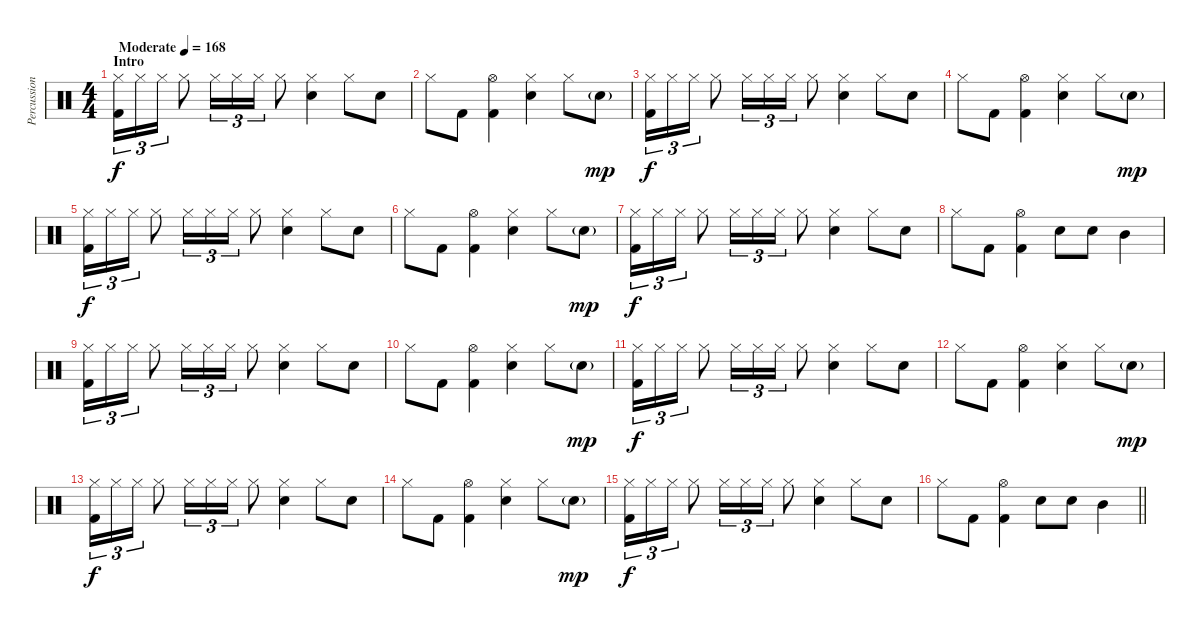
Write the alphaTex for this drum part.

\track ("Percussion" "Percussion") {instrument percussion}
\staff {score}
\articulation defaults
\ts (4 4)
\section ("" "Intro")
\tempo (168 "Moderate")
\clef neutral
\ks c
("Hi-Hat (closed)" "Kick (hit) 2").16{tu (3 2) dy f} "Hi-Hat (closed)".16{tu (3 2)} "Hi-Hat (closed)".16{tu (3 2)} "Hi-Hat (closed)".8 "Hi-Hat (closed)".16{tu (3 2)} "Hi-Hat (closed)".16{tu (3 2)} "Hi-Hat (closed)".16{tu (3 2)} "Hi-Hat (closed)".8 ("Hi-Hat (closed)" "Electric Snare (hit)").4 "Hi-Hat (closed)".8 "Electric Snare (hit)".8 |
"Hi-Hat (closed)".8 "Kick (hit) 2".8 ("Hi-Hat (open)" "Kick (hit) 2").4 ("Hi-Hat (closed)" "Electric Snare (hit)").4 "Hi-Hat (closed)".8 "Electric Snare (hit)"{g}.8{dy mp} |
("Hi-Hat (closed)" "Kick (hit) 2").16{tu (3 2) dy f} "Hi-Hat (closed)".16{tu (3 2)} "Hi-Hat (closed)".16{tu (3 2)} "Hi-Hat (closed)".8 "Hi-Hat (closed)".16{tu (3 2)} "Hi-Hat (closed)".16{tu (3 2)} "Hi-Hat (closed)".16{tu (3 2)} "Hi-Hat (closed)".8 ("Hi-Hat (closed)" "Electric Snare (hit)").4 "Hi-Hat (closed)".8 "Electric Snare (hit)".8 |
"Hi-Hat (closed)".8 "Kick (hit) 2".8 ("Hi-Hat (open)" "Kick (hit) 2").4 ("Hi-Hat (closed)" "Electric Snare (hit)").4 "Hi-Hat (closed)".8 "Electric Snare (hit)"{g}.8{dy mp} |
("Hi-Hat (closed)" "Kick (hit) 2").16{tu (3 2) dy f} "Hi-Hat (closed)".16{tu (3 2)} "Hi-Hat (closed)".16{tu (3 2)} "Hi-Hat (closed)".8 "Hi-Hat (closed)".16{tu (3 2)} "Hi-Hat (closed)".16{tu (3 2)} "Hi-Hat (closed)".16{tu (3 2)} "Hi-Hat (closed)".8 ("Hi-Hat (closed)" "Electric Snare (hit)").4 "Hi-Hat (closed)".8 "Electric Snare (hit)".8 |
"Hi-Hat (closed)".8 "Kick (hit) 2".8 ("Hi-Hat (open)" "Kick (hit) 2").4 ("Hi-Hat (closed)" "Electric Snare (hit)").4 "Hi-Hat (closed)".8 "Electric Snare (hit)"{g}.8{dy mp} |
("Hi-Hat (closed)" "Kick (hit) 2").16{tu (3 2) dy f} "Hi-Hat (closed)".16{tu (3 2)} "Hi-Hat (closed)".16{tu (3 2)} "Hi-Hat (closed)".8 "Hi-Hat (closed)".16{tu (3 2)} "Hi-Hat (closed)".16{tu (3 2)} "Hi-Hat (closed)".16{tu (3 2)} "Hi-Hat (closed)".8 ("Hi-Hat (closed)" "Electric Snare (hit)").4 "Hi-Hat (closed)".8 "Electric Snare (hit)".8 |
"Hi-Hat (closed)".8 "Kick (hit) 2".8 ("Hi-Hat (open)" "Kick (hit) 2").4 "Electric Snare (hit)".8 "Electric Snare (hit)".8 "Mid Tom (hit)".4 |
("Hi-Hat (closed)" "Kick (hit) 2").16{tu (3 2)} "Hi-Hat (closed)".16{tu (3 2)} "Hi-Hat (closed)".16{tu (3 2)} "Hi-Hat (closed)".8 "Hi-Hat (closed)".16{tu (3 2)} "Hi-Hat (closed)".16{tu (3 2)} "Hi-Hat (closed)".16{tu (3 2)} "Hi-Hat (closed)".8 ("Hi-Hat (closed)" "Electric Snare (hit)").4 "Hi-Hat (closed)".8 "Electric Snare (hit)".8 |
"Hi-Hat (closed)".8 "Kick (hit) 2".8 ("Hi-Hat (open)" "Kick (hit) 2").4 ("Hi-Hat (closed)" "Electric Snare (hit)").4 "Hi-Hat (closed)".8 "Electric Snare (hit)"{g}.8{dy mp} |
("Hi-Hat (closed)" "Kick (hit) 2").16{tu (3 2) dy f} "Hi-Hat (closed)".16{tu (3 2)} "Hi-Hat (closed)".16{tu (3 2)} "Hi-Hat (closed)".8 "Hi-Hat (closed)".16{tu (3 2)} "Hi-Hat (closed)".16{tu (3 2)} "Hi-Hat (closed)".16{tu (3 2)} "Hi-Hat (closed)".8 ("Hi-Hat (closed)" "Electric Snare (hit)").4 "Hi-Hat (closed)".8 "Electric Snare (hit)".8 |
"Hi-Hat (closed)".8 "Kick (hit) 2".8 ("Hi-Hat (open)" "Kick (hit) 2").4 ("Hi-Hat (closed)" "Electric Snare (hit)").4 "Hi-Hat (closed)".8 "Electric Snare (hit)"{g}.8{dy mp} |
("Hi-Hat (closed)" "Kick (hit) 2").16{tu (3 2) dy f} "Hi-Hat (closed)".16{tu (3 2)} "Hi-Hat (closed)".16{tu (3 2)} "Hi-Hat (closed)".8 "Hi-Hat (closed)".16{tu (3 2)} "Hi-Hat (closed)".16{tu (3 2)} "Hi-Hat (closed)".16{tu (3 2)} "Hi-Hat (closed)".8 ("Hi-Hat (closed)" "Electric Snare (hit)").4 "Hi-Hat (closed)".8 "Electric Snare (hit)".8 |
"Hi-Hat (closed)".8 "Kick (hit) 2".8 ("Hi-Hat (open)" "Kick (hit) 2").4 ("Hi-Hat (closed)" "Electric Snare (hit)").4 "Hi-Hat (closed)".8 "Electric Snare (hit)"{g}.8{dy mp} |
("Hi-Hat (closed)" "Kick (hit) 2").16{tu (3 2) dy f} "Hi-Hat (closed)".16{tu (3 2)} "Hi-Hat (closed)".16{tu (3 2)} "Hi-Hat (closed)".8 "Hi-Hat (closed)".16{tu (3 2)} "Hi-Hat (closed)".16{tu (3 2)} "Hi-Hat (closed)".16{tu (3 2)} "Hi-Hat (closed)".8 ("Hi-Hat (closed)" "Electric Snare (hit)").4 "Hi-Hat (closed)".8 "Electric Snare (hit)".8 |
\barLineRight lightlight "Hi-Hat (closed)".8 "Kick (hit) 2".8
("Hi-Hat (open)" "Kick (hit) 2").4 "Electric Snare (hit)".8 "Electric Snare (hit)".8 "Mid Tom (hit)".4
